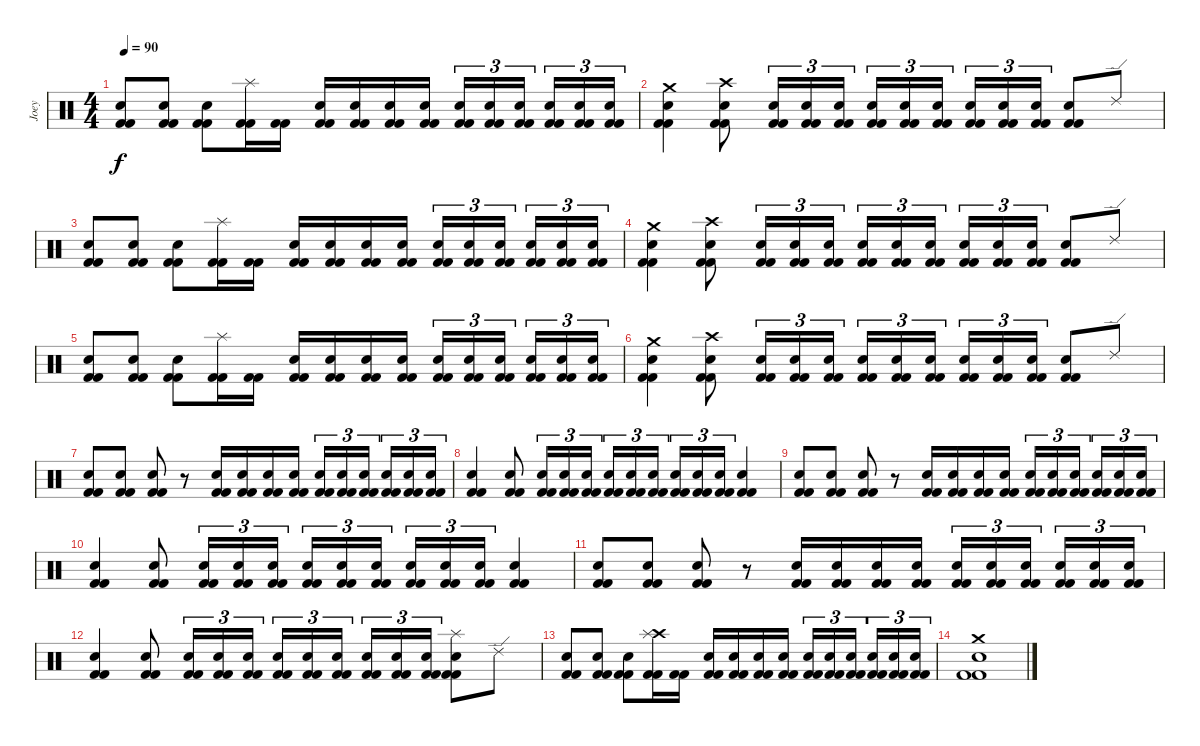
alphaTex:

\track ("Joey" "Joey") {instrument percussion}
\staff {score}
\articulation defaults
\ts (4 4)
\tempo 90
\clef neutral
\ks c
("Electric Snare (hit)" "Kick (hit) 2" "Kick (hit) 2").8{dy f} ("Electric Snare (hit)" "Kick (hit) 2" "Kick (hit) 2").8 ("Electric Snare (hit)" "Kick (hit) 2" "Kick (hit) 2").8 ("Splash (hit)" "Kick (hit) 2" "Kick (hit) 2").16 ("Kick (hit) 2" "Kick (hit) 2").16 ("Electric Snare (hit)" "Kick (hit) 2" "Kick (hit) 2").16 ("Electric Snare (hit)" "Kick (hit) 2" "Kick (hit) 2").16 ("Electric Snare (hit)" "Kick (hit) 2" "Kick (hit) 2").16 ("Electric Snare (hit)" "Kick (hit) 2" "Kick (hit) 2").16 ("Electric Snare (hit)" "Kick (hit) 2" "Kick (hit) 2").16{tu (3 2)} ("Electric Snare (hit)" "Kick (hit) 2" "Kick (hit) 2").16{tu (3 2)} ("Electric Snare (hit)" "Kick (hit) 2" "Kick (hit) 2").16{tu (3 2)} ("Electric Snare (hit)" "Kick (hit) 2" "Kick (hit) 2").16{tu (3 2)} ("Electric Snare (hit)" "Kick (hit) 2" "Kick (hit) 2").16{tu (3 2)} ("Electric Snare (hit)" "Kick (hit) 2" "Kick (hit) 2").16{tu (3 2)} |
("Electric Snare (hit)" "Crash medium (hit)" "Kick (hit) 2" "Kick (hit) 2").4 ("Electric Snare (hit)" "Crash high (hit)" "Kick (hit) 2" "Kick (hit) 2").8 ("Electric Snare (hit)" "Kick (hit) 2" "Kick (hit) 2").16{tu (3 2)} ("Electric Snare (hit)" "Kick (hit) 2" "Kick (hit) 2").16{tu (3 2)} ("Electric Snare (hit)" "Kick (hit) 2" "Kick (hit) 2").16{tu (3 2)} ("Electric Snare (hit)" "Kick (hit) 2" "Kick (hit) 2").16{tu (3 2)} ("Electric Snare (hit)" "Kick (hit) 2" "Kick (hit) 2").16{tu (3 2)} ("Electric Snare (hit)" "Kick (hit) 2" "Kick (hit) 2").16{tu (3 2)} ("Electric Snare (hit)" "Kick (hit) 2" "Kick (hit) 2").16{tu (3 2)} ("Electric Snare (hit)" "Kick (hit) 2" "Kick (hit) 2").16{tu (3 2)} ("Electric Snare (hit)" "Kick (hit) 2" "Kick (hit) 2").16{tu (3 2)} ("Electric Snare (hit)" "Kick (hit) 2" "Kick (hit) 2").8 "Ride (edge) 2".8 |
("Electric Snare (hit)" "Kick (hit) 2" "Kick (hit) 2").8 ("Electric Snare (hit)" "Kick (hit) 2" "Kick (hit) 2").8 ("Electric Snare (hit)" "Kick (hit) 2" "Kick (hit) 2").8 ("Splash (hit)" "Kick (hit) 2" "Kick (hit) 2").16 ("Kick (hit) 2" "Kick (hit) 2").16 ("Electric Snare (hit)" "Kick (hit) 2" "Kick (hit) 2").16 ("Electric Snare (hit)" "Kick (hit) 2" "Kick (hit) 2").16 ("Electric Snare (hit)" "Kick (hit) 2" "Kick (hit) 2").16 ("Electric Snare (hit)" "Kick (hit) 2" "Kick (hit) 2").16 ("Electric Snare (hit)" "Kick (hit) 2" "Kick (hit) 2").16{tu (3 2)} ("Electric Snare (hit)" "Kick (hit) 2" "Kick (hit) 2").16{tu (3 2)} ("Electric Snare (hit)" "Kick (hit) 2" "Kick (hit) 2").16{tu (3 2)} ("Electric Snare (hit)" "Kick (hit) 2" "Kick (hit) 2").16{tu (3 2)} ("Electric Snare (hit)" "Kick (hit) 2" "Kick (hit) 2").16{tu (3 2)} ("Electric Snare (hit)" "Kick (hit) 2" "Kick (hit) 2").16{tu (3 2)} |
("Electric Snare (hit)" "Crash medium (hit)" "Kick (hit) 2" "Kick (hit) 2").4 ("Electric Snare (hit)" "Crash high (hit)" "Kick (hit) 2" "Kick (hit) 2").8 ("Electric Snare (hit)" "Kick (hit) 2" "Kick (hit) 2").16{tu (3 2)} ("Electric Snare (hit)" "Kick (hit) 2" "Kick (hit) 2").16{tu (3 2)} ("Electric Snare (hit)" "Kick (hit) 2" "Kick (hit) 2").16{tu (3 2)} ("Electric Snare (hit)" "Kick (hit) 2" "Kick (hit) 2").16{tu (3 2)} ("Electric Snare (hit)" "Kick (hit) 2" "Kick (hit) 2").16{tu (3 2)} ("Electric Snare (hit)" "Kick (hit) 2" "Kick (hit) 2").16{tu (3 2)} ("Electric Snare (hit)" "Kick (hit) 2" "Kick (hit) 2").16{tu (3 2)} ("Electric Snare (hit)" "Kick (hit) 2" "Kick (hit) 2").16{tu (3 2)} ("Electric Snare (hit)" "Kick (hit) 2" "Kick (hit) 2").16{tu (3 2)} ("Electric Snare (hit)" "Kick (hit) 2" "Kick (hit) 2").8 "Ride (edge) 2".8 |
("Electric Snare (hit)" "Kick (hit) 2" "Kick (hit) 2").8 ("Electric Snare (hit)" "Kick (hit) 2" "Kick (hit) 2").8 ("Electric Snare (hit)" "Kick (hit) 2" "Kick (hit) 2").8 ("Splash (hit)" "Kick (hit) 2" "Kick (hit) 2").16 ("Kick (hit) 2" "Kick (hit) 2").16 ("Electric Snare (hit)" "Kick (hit) 2" "Kick (hit) 2").16 ("Electric Snare (hit)" "Kick (hit) 2" "Kick (hit) 2").16 ("Electric Snare (hit)" "Kick (hit) 2" "Kick (hit) 2").16 ("Electric Snare (hit)" "Kick (hit) 2" "Kick (hit) 2").16 ("Electric Snare (hit)" "Kick (hit) 2" "Kick (hit) 2").16{tu (3 2)} ("Electric Snare (hit)" "Kick (hit) 2" "Kick (hit) 2").16{tu (3 2)} ("Electric Snare (hit)" "Kick (hit) 2" "Kick (hit) 2").16{tu (3 2)} ("Electric Snare (hit)" "Kick (hit) 2" "Kick (hit) 2").16{tu (3 2)} ("Electric Snare (hit)" "Kick (hit) 2" "Kick (hit) 2").16{tu (3 2)} ("Electric Snare (hit)" "Kick (hit) 2" "Kick (hit) 2").16{tu (3 2)} |
("Electric Snare (hit)" "Crash medium (hit)" "Kick (hit) 2" "Kick (hit) 2").4 ("Electric Snare (hit)" "Crash high (hit)" "Kick (hit) 2" "Kick (hit) 2").8 ("Electric Snare (hit)" "Kick (hit) 2" "Kick (hit) 2").16{tu (3 2)} ("Electric Snare (hit)" "Kick (hit) 2" "Kick (hit) 2").16{tu (3 2)} ("Electric Snare (hit)" "Kick (hit) 2" "Kick (hit) 2").16{tu (3 2)} ("Electric Snare (hit)" "Kick (hit) 2" "Kick (hit) 2").16{tu (3 2)} ("Electric Snare (hit)" "Kick (hit) 2" "Kick (hit) 2").16{tu (3 2)} ("Electric Snare (hit)" "Kick (hit) 2" "Kick (hit) 2").16{tu (3 2)} ("Electric Snare (hit)" "Kick (hit) 2" "Kick (hit) 2").16{tu (3 2)} ("Electric Snare (hit)" "Kick (hit) 2" "Kick (hit) 2").16{tu (3 2)} ("Electric Snare (hit)" "Kick (hit) 2" "Kick (hit) 2").16{tu (3 2)} ("Electric Snare (hit)" "Kick (hit) 2" "Kick (hit) 2").8 "Ride (edge) 2".8 |
("Electric Snare (hit)" "Kick (hit) 2" "Kick (hit) 2").8 ("Electric Snare (hit)" "Kick (hit) 2" "Kick (hit) 2").8 ("Electric Snare (hit)" "Kick (hit) 2" "Kick (hit) 2").8 r.8 ("Electric Snare (hit)" "Kick (hit) 2" "Kick (hit) 2").16 ("Electric Snare (hit)" "Kick (hit) 2" "Kick (hit) 2").16 ("Electric Snare (hit)" "Kick (hit) 2" "Kick (hit) 2").16 ("Electric Snare (hit)" "Kick (hit) 2" "Kick (hit) 2").16 ("Electric Snare (hit)" "Kick (hit) 2" "Kick (hit) 2").16{tu (3 2)} ("Electric Snare (hit)" "Kick (hit) 2" "Kick (hit) 2").16{tu (3 2)} ("Electric Snare (hit)" "Kick (hit) 2" "Kick (hit) 2").16{tu (3 2)} ("Electric Snare (hit)" "Kick (hit) 2" "Kick (hit) 2").16{tu (3 2)} ("Electric Snare (hit)" "Kick (hit) 2" "Kick (hit) 2").16{tu (3 2)} ("Electric Snare (hit)" "Kick (hit) 2" "Kick (hit) 2").16{tu (3 2)} |
("Electric Snare (hit)" "Kick (hit) 2" "Kick (hit) 2").4 ("Electric Snare (hit)" "Kick (hit) 2" "Kick (hit) 2").8 ("Electric Snare (hit)" "Kick (hit) 2" "Kick (hit) 2").16{tu (3 2)} ("Electric Snare (hit)" "Kick (hit) 2" "Kick (hit) 2").16{tu (3 2)} ("Electric Snare (hit)" "Kick (hit) 2" "Kick (hit) 2").16{tu (3 2)} ("Electric Snare (hit)" "Kick (hit) 2" "Kick (hit) 2").16{tu (3 2)} ("Electric Snare (hit)" "Kick (hit) 2" "Kick (hit) 2").16{tu (3 2)} ("Electric Snare (hit)" "Kick (hit) 2" "Kick (hit) 2").16{tu (3 2)} ("Electric Snare (hit)" "Kick (hit) 2" "Kick (hit) 2").16{tu (3 2)} ("Electric Snare (hit)" "Kick (hit) 2" "Kick (hit) 2").16{tu (3 2)} ("Electric Snare (hit)" "Kick (hit) 2" "Kick (hit) 2").16{tu (3 2)} ("Electric Snare (hit)" "Kick (hit) 2" "Kick (hit) 2").4 |
("Electric Snare (hit)" "Kick (hit) 2" "Kick (hit) 2").8 ("Electric Snare (hit)" "Kick (hit) 2" "Kick (hit) 2").8 ("Electric Snare (hit)" "Kick (hit) 2" "Kick (hit) 2").8 r.8 ("Electric Snare (hit)" "Kick (hit) 2" "Kick (hit) 2").16 ("Electric Snare (hit)" "Kick (hit) 2" "Kick (hit) 2").16 ("Electric Snare (hit)" "Kick (hit) 2" "Kick (hit) 2").16 ("Electric Snare (hit)" "Kick (hit) 2" "Kick (hit) 2").16 ("Electric Snare (hit)" "Kick (hit) 2" "Kick (hit) 2").16{tu (3 2)} ("Electric Snare (hit)" "Kick (hit) 2" "Kick (hit) 2").16{tu (3 2)} ("Electric Snare (hit)" "Kick (hit) 2" "Kick (hit) 2").16{tu (3 2)} ("Electric Snare (hit)" "Kick (hit) 2" "Kick (hit) 2").16{tu (3 2)} ("Electric Snare (hit)" "Kick (hit) 2" "Kick (hit) 2").16{tu (3 2)} ("Electric Snare (hit)" "Kick (hit) 2" "Kick (hit) 2").16{tu (3 2)} |
("Electric Snare (hit)" "Kick (hit) 2" "Kick (hit) 2").4 ("Electric Snare (hit)" "Kick (hit) 2" "Kick (hit) 2").8 ("Electric Snare (hit)" "Kick (hit) 2" "Kick (hit) 2").16{tu (3 2)} ("Electric Snare (hit)" "Kick (hit) 2" "Kick (hit) 2").16{tu (3 2)} ("Electric Snare (hit)" "Kick (hit) 2" "Kick (hit) 2").16{tu (3 2)} ("Electric Snare (hit)" "Kick (hit) 2" "Kick (hit) 2").16{tu (3 2)} ("Electric Snare (hit)" "Kick (hit) 2" "Kick (hit) 2").16{tu (3 2)} ("Electric Snare (hit)" "Kick (hit) 2" "Kick (hit) 2").16{tu (3 2)} ("Electric Snare (hit)" "Kick (hit) 2" "Kick (hit) 2").16{tu (3 2)} ("Electric Snare (hit)" "Kick (hit) 2" "Kick (hit) 2").16{tu (3 2)} ("Electric Snare (hit)" "Kick (hit) 2" "Kick (hit) 2").16{tu (3 2)} ("Electric Snare (hit)" "Kick (hit) 2" "Kick (hit) 2").4 |
("Electric Snare (hit)" "Kick (hit) 2" "Kick (hit) 2").8 ("Electric Snare (hit)" "Kick (hit) 2" "Kick (hit) 2").8 ("Electric Snare (hit)" "Kick (hit) 2" "Kick (hit) 2").8 r.8 ("Electric Snare (hit)" "Kick (hit) 2" "Kick (hit) 2").16 ("Electric Snare (hit)" "Kick (hit) 2" "Kick (hit) 2").16 ("Electric Snare (hit)" "Kick (hit) 2" "Kick (hit) 2").16 ("Electric Snare (hit)" "Kick (hit) 2" "Kick (hit) 2").16 ("Electric Snare (hit)" "Kick (hit) 2" "Kick (hit) 2").16{tu (3 2)} ("Electric Snare (hit)" "Kick (hit) 2" "Kick (hit) 2").16{tu (3 2)} ("Electric Snare (hit)" "Kick (hit) 2" "Kick (hit) 2").16{tu (3 2)} ("Electric Snare (hit)" "Kick (hit) 2" "Kick (hit) 2").16{tu (3 2)} ("Electric Snare (hit)" "Kick (hit) 2" "Kick (hit) 2").16{tu (3 2)} ("Electric Snare (hit)" "Kick (hit) 2" "Kick (hit) 2").16{tu (3 2)} |
("Electric Snare (hit)" "Kick (hit) 2" "Kick (hit) 2").4 ("Electric Snare (hit)" "Kick (hit) 2" "Kick (hit) 2").8 ("Electric Snare (hit)" "Kick (hit) 2" "Kick (hit) 2").16{tu (3 2)} ("Electric Snare (hit)" "Kick (hit) 2" "Kick (hit) 2").16{tu (3 2)} ("Electric Snare (hit)" "Kick (hit) 2" "Kick (hit) 2").16{tu (3 2)} ("Electric Snare (hit)" "Kick (hit) 2" "Kick (hit) 2").16{tu (3 2)} ("Electric Snare (hit)" "Kick (hit) 2" "Kick (hit) 2").16{tu (3 2)} ("Electric Snare (hit)" "Kick (hit) 2" "Kick (hit) 2").16{tu (3 2)} ("Electric Snare (hit)" "Kick (hit) 2" "Kick (hit) 2").16{tu (3 2)} ("Electric Snare (hit)" "Kick (hit) 2" "Kick (hit) 2").16{tu (3 2)} ("Electric Snare (hit)" "Kick (hit) 2" "Kick (hit) 2").16{tu (3 2)} ("Electric Snare (hit)" "Splash (hit)" "Kick (hit) 2" "Kick (hit) 2").8 "Ride (edge) 2".8 |
("Electric Snare (hit)" "Kick (hit) 2" "Kick (hit) 2").8 ("Electric Snare (hit)" "Kick (hit) 2" "Kick (hit) 2").8 ("Electric Snare (hit)" "Kick (hit) 2" "Kick (hit) 2").8 ("Crash high (hit)" "Splash (hit)" "Kick (hit) 2" "Kick (hit) 2").16 ("Kick (hit) 2" "Kick (hit) 2").16 ("Electric Snare (hit)" "Kick (hit) 2" "Kick (hit) 2").16 ("Electric Snare (hit)" "Kick (hit) 2" "Kick (hit) 2").16 ("Electric Snare (hit)" "Kick (hit) 2" "Kick (hit) 2").16 ("Electric Snare (hit)" "Kick (hit) 2" "Kick (hit) 2").16 ("Electric Snare (hit)" "Kick (hit) 2" "Kick (hit) 2").16{tu (3 2)} ("Electric Snare (hit)" "Kick (hit) 2" "Kick (hit) 2").16{tu (3 2)} ("Electric Snare (hit)" "Kick (hit) 2" "Kick (hit) 2").16{tu (3 2)} ("Electric Snare (hit)" "Kick (hit) 2" "Kick (hit) 2").16{tu (3 2)} ("Electric Snare (hit)" "Kick (hit) 2" "Kick (hit) 2").16{tu (3 2)} ("Electric Snare (hit)" "Kick (hit) 2" "Kick (hit) 2").16{tu (3 2)} |
("Electric Snare (hit)" "Crash medium (hit)" "Kick (hit) 2" "Kick (hit) 2").1
